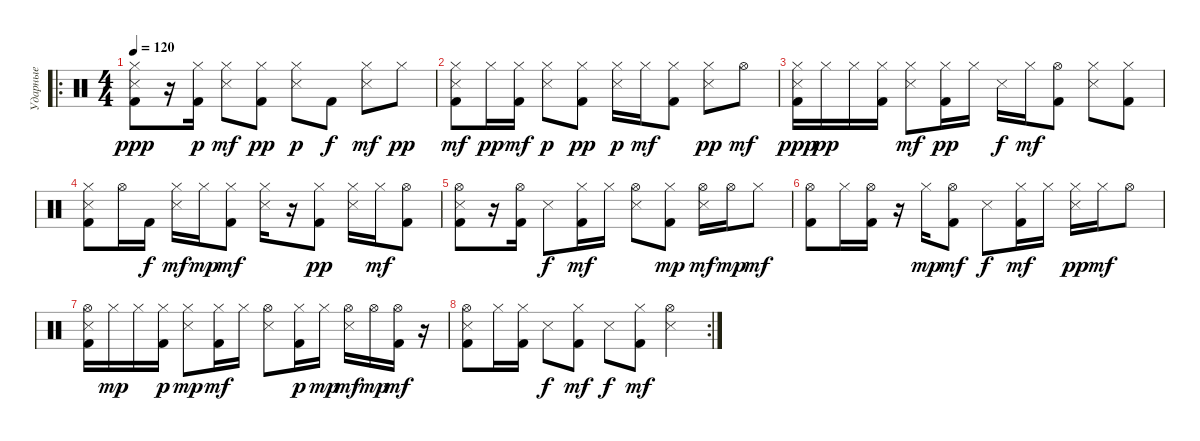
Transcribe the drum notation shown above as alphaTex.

\track ("Ударные" "Ударные") {instrument percussion}
\staff {score}
\articulation defaults
\ro
\ts (4 4)
\tempo 120
\clef neutral
\ks c
("Hi-Hat (closed)" "Snare (side stick) 3" "Kick (hit) 2").8{dy ppp} r.16 ("Hi-Hat (closed)" "Kick (hit) 2").16{dy p} ("Hi-Hat (closed)" "Snare (side stick) 3").8{dy mf} ("Hi-Hat (closed)" "Kick (hit) 2").8{dy pp} ("Hi-Hat (closed)" "Snare (side stick) 3").8{dy p} "Kick (hit) 2".8{dy f} ("Hi-Hat (closed)" "Snare (side stick) 3").8{dy mf} "Hi-Hat (closed)".8{dy pp} |
("Hi-Hat (closed)" "Snare (side stick) 3" "Kick (hit) 2").8{dy mf} "Hi-Hat (closed)".16{dy pp} ("Hi-Hat (closed)" "Kick (hit) 2").16{dy mf} ("Hi-Hat (closed)" "Snare (side stick) 3").8{dy p} ("Hi-Hat (closed)" "Kick (hit) 2").8{dy pp} ("Hi-Hat (closed)" "Snare (side stick) 3").16{dy p} "Hi-Hat (closed)".16{dy mf} ("Hi-Hat (closed)" "Kick (hit) 2").8 ("Hi-Hat (closed)" "Snare (side stick) 3").8{dy pp} "Hi-Hat (open)".8{dy mf} |
("Hi-Hat (closed)" "Snare (side stick) 3" "Kick (hit) 2").16{dy ppp} "Hi-Hat (closed)".16{dy pp} "Hi-Hat (closed)".16 ("Hi-Hat (closed)" "Kick (hit) 2").16 ("Hi-Hat (closed)" "Snare (side stick) 3").8{dy mf} ("Hi-Hat (closed)" "Kick (hit) 2").16{dy pp} "Hi-Hat (closed)".16 "Snare (side stick) 3".16{dy f} "Hi-Hat (closed)".16{dy mf} ("Hi-Hat (open)" "Kick (hit) 2").8 ("Hi-Hat (closed)" "Snare (side stick) 3").8 ("Hi-Hat (closed)" "Kick (hit) 2").8 |
("Hi-Hat (closed)" "Snare (side stick) 3" "Kick (hit) 2").8 "Hi-Hat (open)".16 "Kick (hit) 2".16{dy f} ("Hi-Hat (closed)" "Snare (side stick) 3").16{dy mf} "Hi-Hat (closed)".16{dy mp} ("Hi-Hat (closed)" "Kick (hit) 2").8{dy mf} ("Hi-Hat (closed)" "Snare (side stick) 3").16 r.16 ("Hi-Hat (closed)" "Kick (hit) 2").8{dy pp} ("Hi-Hat (closed)" "Snare (side stick) 3").16 "Hi-Hat (closed)".16{dy mf} ("Hi-Hat (open)" "Kick (hit) 2").8 |
("Hi-Hat (open)" "Snare (side stick) 3" "Kick (hit) 2").8 r.16 ("Hi-Hat (open)" "Kick (hit) 2").16 "Snare (side stick) 3".8{dy f} ("Hi-Hat (closed)" "Kick (hit) 2").16{dy mf} "Hi-Hat (closed)".16 ("Hi-Hat (open)" "Snare (side stick) 3").8 ("Hi-Hat (closed)" "Kick (hit) 2").8{dy mp} ("Hi-Hat (open)" "Snare (side stick) 3").16{dy mf} "Hi-Hat (open)".16{dy mp} "Hi-Hat (closed)".8{dy mf} |
("Hi-Hat (open)" "Kick (hit) 2").8 "Hi-Hat (closed)".16 ("Hi-Hat (open)" "Kick (hit) 2").16 r.16 "Hi-Hat (closed)".16{dy mp} ("Hi-Hat (open)" "Kick (hit) 2").8{dy mf} "Snare (side stick) 3".8{dy f} ("Hi-Hat (closed)" "Kick (hit) 2").16{dy mf} "Hi-Hat (closed)".16 ("Hi-Hat (closed)" "Snare (side stick) 3").16{dy pp} "Hi-Hat (closed)".16{dy mf} "Hi-Hat (open)".8 |
("Hi-Hat (open)" "Snare (side stick) 3" "Kick (hit) 2").16 "Hi-Hat (closed)".16{dy mp} "Hi-Hat (closed)".16 ("Hi-Hat (closed)" "Kick (hit) 2").16{dy p} ("Hi-Hat (closed)" "Snare (side stick) 3").8{dy mp} ("Hi-Hat (closed)" "Kick (hit) 2").16{dy mf} "Hi-Hat (closed)".16 ("Hi-Hat (open)" "Snare (side stick) 3").8 ("Hi-Hat (closed)" "Kick (hit) 2").16{dy p} "Hi-Hat (closed)".16{dy mp} ("Hi-Hat (open)" "Snare (side stick) 3").16{dy mf} "Hi-Hat (open)".16{dy mp} ("Hi-Hat (open)" "Kick (hit) 2").16{dy mf} r.16 |
\rc 2
("Hi-Hat (open)" "Snare (side stick) 3" "Kick (hit) 2").8 "Hi-Hat (closed)".16 ("Hi-Hat (closed)" "Kick (hit) 2").16 "Snare (side stick) 3".8{dy f} ("Hi-Hat (closed)" "Kick (hit) 2").8{dy mf} "Snare (side stick) 3".8{dy f} ("Hi-Hat (closed)" "Kick (hit) 2").8{dy mf} ("Hi-Hat (open)" "Snare (side stick) 3").4
